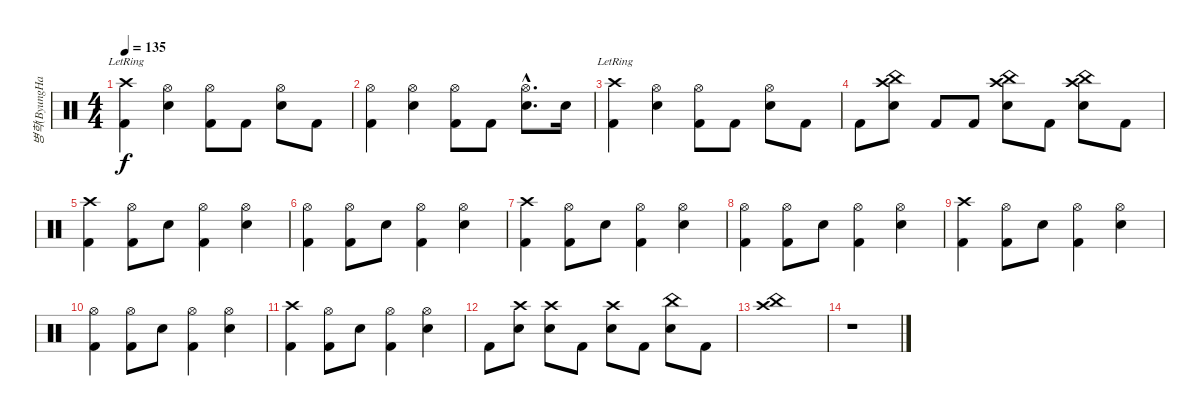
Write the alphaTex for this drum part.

\track ("병학(ByungHak)" "병학(ByungHa") {instrument percussion}
\staff {score}
\articulation defaults
\ts (4 4)
\tempo 135
\clef neutral
\ks c
("Crash high (hit)"{lr} "Kick (hit) 2").4{dy f} ("Hi-Hat (open)" "Snare (hit) 2").4 ("Hi-Hat (open)" "Kick (hit) 2").8 "Kick (hit) 2".8 ("Hi-Hat (open)" "Snare (hit) 2").8 "Kick (hit) 2".8 |
("Hi-Hat (open)" "Kick (hit) 2").4 ("Hi-Hat (open)" "Snare (hit) 2").4 ("Hi-Hat (open)" "Kick (hit) 2").8 "Kick (hit) 2".8 ("Hi-Hat (open)"{hac} "Snare (hit) 2"{hac}).8{d} "Snare (hit) 2".16 |
("Crash high (hit)"{lr} "Kick (hit) 2").4 ("Hi-Hat (open)" "Snare (hit) 2").4 ("Hi-Hat (open)" "Kick (hit) 2").8 "Kick (hit) 2".8 ("Hi-Hat (open)" "Snare (hit) 2").8 "Kick (hit) 2".8 |
"Kick (hit) 2".8 ("Crash high (hit)" "China (hit)" "Snare (hit) 2").8 "Kick (hit) 2".8 "Kick (hit) 2".8 ("Crash high (hit)" "China (hit)" "Snare (hit) 2").8 "Kick (hit) 2".8 ("Crash high (hit)" "China (hit)" "Snare (hit) 2").8 "Kick (hit) 2".8 |
("Crash high (hit)" "Kick (hit) 2").4 ("Hi-Hat (open)" "Kick (hit) 2").8 "Snare (hit) 2".8 ("Hi-Hat (open)" "Kick (hit) 2").4 ("Hi-Hat (open)" "Snare (hit) 2").4 |
("Hi-Hat (open)" "Kick (hit) 2").4 ("Hi-Hat (open)" "Kick (hit) 2").8 "Snare (hit) 2".8 ("Hi-Hat (open)" "Kick (hit) 2").4 ("Hi-Hat (open)" "Snare (hit) 2").4 |
("Crash high (hit)" "Kick (hit) 2").4 ("Hi-Hat (open)" "Kick (hit) 2").8 "Snare (hit) 2".8 ("Hi-Hat (open)" "Kick (hit) 2").4 ("Hi-Hat (open)" "Snare (hit) 2").4 |
("Hi-Hat (open)" "Kick (hit) 2").4 ("Hi-Hat (open)" "Kick (hit) 2").8 "Snare (hit) 2".8 ("Hi-Hat (open)" "Kick (hit) 2").4 ("Hi-Hat (open)" "Snare (hit) 2").4 |
("Crash high (hit)" "Kick (hit) 2").4 ("Hi-Hat (open)" "Kick (hit) 2").8 "Snare (hit) 2".8 ("Hi-Hat (open)" "Kick (hit) 2").4 ("Hi-Hat (open)" "Snare (hit) 2").4 |
("Hi-Hat (open)" "Kick (hit) 2").4 ("Hi-Hat (open)" "Kick (hit) 2").8 "Snare (hit) 2".8 ("Hi-Hat (open)" "Kick (hit) 2").4 ("Hi-Hat (open)" "Snare (hit) 2").4 |
("Crash high (hit)" "Kick (hit) 2").4 ("Hi-Hat (open)" "Kick (hit) 2").8 "Snare (hit) 2".8 ("Hi-Hat (open)" "Kick (hit) 2").4 ("Hi-Hat (open)" "Snare (hit) 2").4 |
"Kick (hit) 2".8 ("Crash high (hit)" "Snare (hit) 2").8 ("Crash high (hit)" "Snare (hit) 2").8 "Kick (hit) 2".8 ("Crash high (hit)" "Snare (hit) 2").8 "Kick (hit) 2".8 ("China (hit)" "Snare (hit) 2").8 "Kick (hit) 2".8 |
("China (hit)" "Crash high (hit)").1 |
r.1
